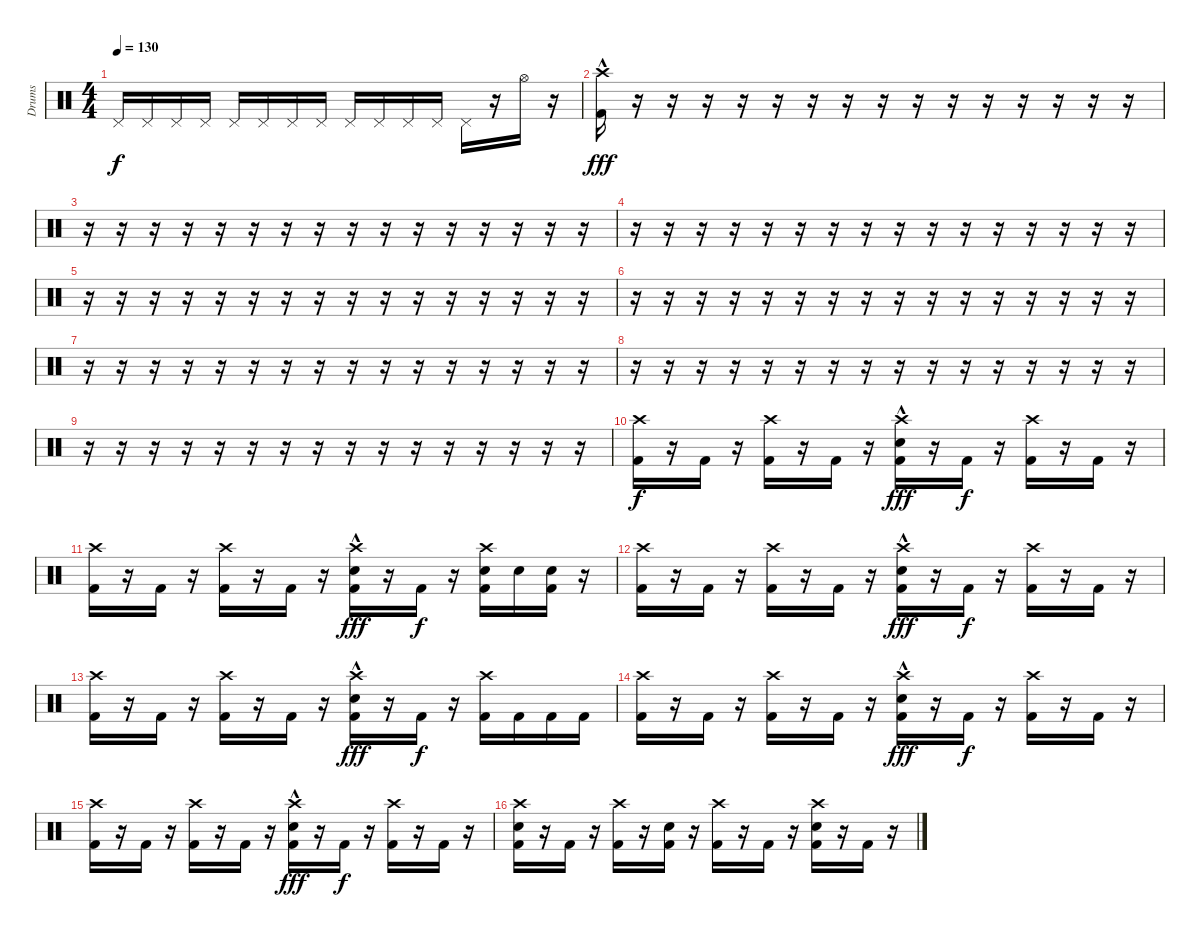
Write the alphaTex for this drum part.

\track ("Drums" "Drums") {instrument percussion}
\staff {score}
\articulation defaults
\ts (4 4)
\tempo 130
\clef neutral
\ks c "Pedal Hi-Hat (hit)".16{dy f} "Pedal Hi-Hat (hit)".16 "Pedal Hi-Hat (hit)".16 "Pedal Hi-Hat (hit)".16 "Pedal Hi-Hat (hit)".16 "Pedal Hi-Hat (hit)".16 "Pedal Hi-Hat (hit)".16 "Pedal Hi-Hat (hit)".16 "Pedal Hi-Hat (hit)".16 "Pedal Hi-Hat (hit)".16 "Pedal Hi-Hat (hit)".16 "Pedal Hi-Hat (hit)".16 "Pedal Hi-Hat (hit)".16
r.16 "Hi-Hat (open)".16 r.16 |
("Crash high (hit)" "Kick (hit) 2"{hac}).16{dy fff} r.16 r.16 r.16 r.16 r.16 r.16 r.16 r.16 r.16 r.16 r.16 r.16 r.16 r.16 r.16 |
r.16 r.16 r.16 r.16 r.16 r.16 r.16 r.16 r.16 r.16 r.16 r.16 r.16 r.16 r.16 r.16 |
r.16 r.16 r.16 r.16 r.16 r.16 r.16 r.16 r.16 r.16 r.16 r.16 r.16 r.16 r.16 r.16 |
r.16 r.16 r.16 r.16 r.16 r.16 r.16 r.16 r.16 r.16 r.16 r.16 r.16 r.16 r.16 r.16 |
r.16 r.16 r.16 r.16 r.16 r.16 r.16 r.16 r.16 r.16 r.16 r.16 r.16 r.16 r.16 r.16 |
r.16 r.16 r.16 r.16 r.16 r.16 r.16 r.16 r.16 r.16 r.16 r.16 r.16 r.16 r.16 r.16 |
r.16 r.16 r.16 r.16 r.16 r.16 r.16 r.16 r.16 r.16 r.16 r.16 r.16 r.16 r.16 r.16 |
r.16 r.16 r.16 r.16 r.16 r.16 r.16 r.16 r.16 r.16 r.16 r.16 r.16 r.16 r.16 r.16 |
("Crash high (hit)" "Kick (hit) 2").16{dy f} r.16 "Kick (hit) 2".16 r.16 ("Crash high (hit)" "Kick (hit) 2").16 r.16 "Kick (hit) 2".16 r.16 ("Crash high (hit)" "Electric Snare (hit)"{hac} "Kick (hit) 2").16{dy fff} r.16 "Kick (hit) 2".16{dy f} r.16 ("Crash high (hit)" "Kick (hit) 2").16 r.16 "Kick (hit) 2".16 r.16 |
("Crash high (hit)" "Kick (hit) 2").16 r.16 "Kick (hit) 2".16 r.16 ("Crash high (hit)" "Kick (hit) 2").16 r.16 "Kick (hit) 2".16 r.16 ("Crash high (hit)" "Electric Snare (hit)"{hac} "Kick (hit) 2").16{dy fff} r.16 "Kick (hit) 2".16{dy f} r.16 ("Crash high (hit)" "Electric Snare (hit)" "Kick (hit) 2").16 "Electric Snare (hit)".16 ("Electric Snare (hit)" "Kick (hit) 2").16 r.16 |
("Crash high (hit)" "Kick (hit) 2").16 r.16 "Kick (hit) 2".16 r.16 ("Crash high (hit)" "Kick (hit) 2").16 r.16 "Kick (hit) 2".16 r.16 ("Crash high (hit)" "Electric Snare (hit)"{hac} "Kick (hit) 2").16{dy fff} r.16 "Kick (hit) 2".16{dy f} r.16 ("Crash high (hit)" "Kick (hit) 2").16 r.16 "Kick (hit) 2".16 r.16 |
("Crash high (hit)" "Kick (hit) 2").16 r.16 "Kick (hit) 2".16 r.16 ("Crash high (hit)" "Kick (hit) 2").16 r.16 "Kick (hit) 2".16 r.16 ("Crash high (hit)" "Electric Snare (hit)"{hac} "Kick (hit) 2").16{dy fff} r.16 "Kick (hit) 2".16{dy f} r.16 ("Crash high (hit)" "Kick (hit) 2").16 "Kick (hit) 2".16 "Kick (hit) 2".16 "Kick (hit) 2".16 |
("Crash high (hit)" "Kick (hit) 2").16 r.16 "Kick (hit) 2".16 r.16 ("Crash high (hit)" "Kick (hit) 2").16 r.16 "Kick (hit) 2".16 r.16 ("Crash high (hit)" "Electric Snare (hit)"{hac} "Kick (hit) 2").16{dy fff} r.16 "Kick (hit) 2".16{dy f} r.16 ("Crash high (hit)" "Kick (hit) 2").16 r.16 "Kick (hit) 2".16 r.16 |
("Crash high (hit)" "Kick (hit) 2").16 r.16 "Kick (hit) 2".16 r.16 ("Crash high (hit)" "Kick (hit) 2").16 r.16 "Kick (hit) 2".16 r.16 ("Crash high (hit)" "Electric Snare (hit)"{hac} "Kick (hit) 2").16{dy fff} r.16 "Kick (hit) 2".16{dy f} r.16 ("Crash high (hit)" "Kick (hit) 2").16 r.16 "Kick (hit) 2".16 r.16 |
("Crash high (hit)" "Electric Snare (hit)" "Kick (hit) 2").16 r.16 "Kick (hit) 2".16 r.16 ("Crash high (hit)" "Kick (hit) 2").16 r.16 ("Electric Snare (hit)" "Kick (hit) 2").16 r.16 ("Crash high (hit)" "Kick (hit) 2").16 r.16 "Kick (hit) 2".16 r.16 ("Crash high (hit)" "Electric Snare (hit)" "Kick (hit) 2").16 r.16 "Kick (hit) 2".16 r.16
